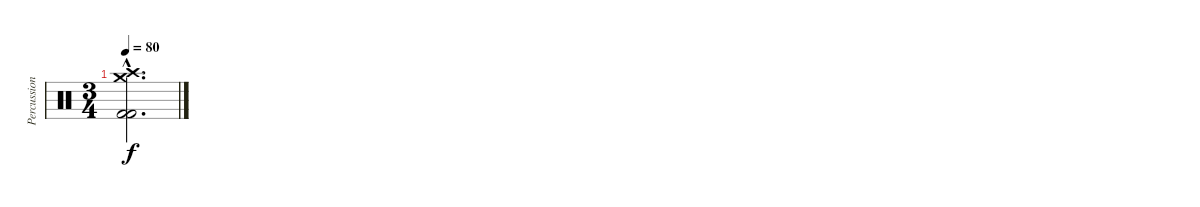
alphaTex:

\track ("Percussion" "Percussion") {instrument percussion}
\staff {score}
\articulation defaults
\ts (3 4)
\tempo 80
\clef neutral
\ks c
("Crash high (hit)"{hac} "Crash medium (hit)"{hac} "Kick (hit) 2"{hac} "Kick (hit) 2"{hac}).2{d dy f}
